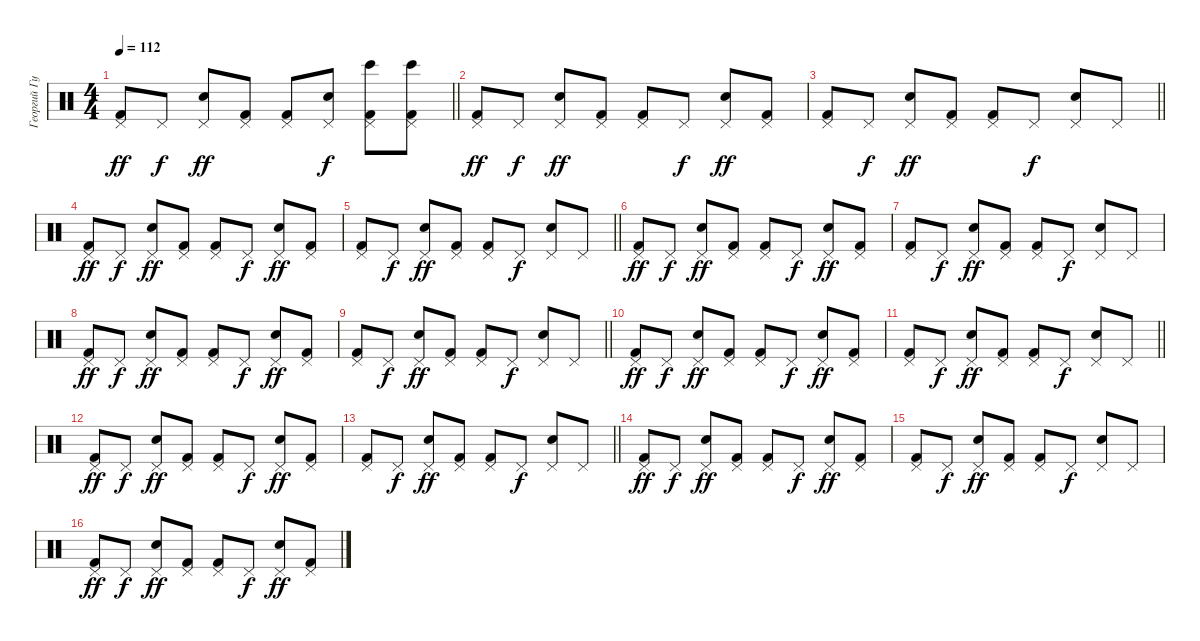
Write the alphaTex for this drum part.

\track ("Георгий Гурьянов" "Георгий Гу") {instrument percussion}
\staff {score}
\articulation defaults
\ts (4 4)
\tempo 112
\clef neutral
\barLineRight lightlight
\ks c
("Pedal Hi-Hat (hit)" "Kick (hit) 2").8{dy ff} "Pedal Hi-Hat (hit)".8{dy f} ("Pedal Hi-Hat (hit)" "Electric Snare (hit)").8{dy ff} ("Pedal Hi-Hat (hit)" "Kick (hit) 2").8 ("Pedal Hi-Hat (hit)" "Kick (hit) 2").8 ("Pedal Hi-Hat (hit)" "Electric Snare (hit)").8{dy f} ("Pedal Hi-Hat (hit)" "Kick (hit) 2" "Bongo High (hit)").8 ("Pedal Hi-Hat (hit)" "Kick (hit) 2" "Bongo High (hit)").8 |
\section ("" "")
("Pedal Hi-Hat (hit)" "Kick (hit) 2").8{dy ff} "Pedal Hi-Hat (hit)".8{dy f} ("Pedal Hi-Hat (hit)" "Electric Snare (hit)").8{dy ff} ("Pedal Hi-Hat (hit)" "Kick (hit) 2").8 ("Pedal Hi-Hat (hit)" "Kick (hit) 2").8 "Pedal Hi-Hat (hit)".8{dy f} ("Pedal Hi-Hat (hit)" "Electric Snare (hit)").8{dy ff} ("Pedal Hi-Hat (hit)" "Kick (hit) 2").8 |
\barLineRight lightlight
("Pedal Hi-Hat (hit)" "Kick (hit) 2").8 "Pedal Hi-Hat (hit)".8{dy f} ("Pedal Hi-Hat (hit)" "Electric Snare (hit)").8{dy ff} ("Pedal Hi-Hat (hit)" "Kick (hit) 2").8 ("Pedal Hi-Hat (hit)" "Kick (hit) 2").8 "Pedal Hi-Hat (hit)".8{dy f} ("Pedal Hi-Hat (hit)" "Electric Snare (hit)").8 "Pedal Hi-Hat (hit)".8 |
("Pedal Hi-Hat (hit)" "Kick (hit) 2").8{dy ff} "Pedal Hi-Hat (hit)".8{dy f} ("Pedal Hi-Hat (hit)" "Electric Snare (hit)").8{dy ff} ("Pedal Hi-Hat (hit)" "Kick (hit) 2").8 ("Pedal Hi-Hat (hit)" "Kick (hit) 2").8 "Pedal Hi-Hat (hit)".8{dy f} ("Pedal Hi-Hat (hit)" "Electric Snare (hit)").8{dy ff} ("Pedal Hi-Hat (hit)" "Kick (hit) 2").8 |
\barLineRight lightlight
("Pedal Hi-Hat (hit)" "Kick (hit) 2").8 "Pedal Hi-Hat (hit)".8{dy f} ("Pedal Hi-Hat (hit)" "Electric Snare (hit)").8{dy ff} ("Pedal Hi-Hat (hit)" "Kick (hit) 2").8 ("Pedal Hi-Hat (hit)" "Kick (hit) 2").8 "Pedal Hi-Hat (hit)".8{dy f} ("Pedal Hi-Hat (hit)" "Electric Snare (hit)").8 "Pedal Hi-Hat (hit)".8 |
("Pedal Hi-Hat (hit)" "Kick (hit) 2").8{dy ff} "Pedal Hi-Hat (hit)".8{dy f} ("Pedal Hi-Hat (hit)" "Electric Snare (hit)").8{dy ff} ("Pedal Hi-Hat (hit)" "Kick (hit) 2").8 ("Pedal Hi-Hat (hit)" "Kick (hit) 2").8 "Pedal Hi-Hat (hit)".8{dy f} ("Pedal Hi-Hat (hit)" "Electric Snare (hit)").8{dy ff} ("Pedal Hi-Hat (hit)" "Kick (hit) 2").8 |
("Pedal Hi-Hat (hit)" "Kick (hit) 2").8 "Pedal Hi-Hat (hit)".8{dy f} ("Pedal Hi-Hat (hit)" "Electric Snare (hit)").8{dy ff} ("Pedal Hi-Hat (hit)" "Kick (hit) 2").8 ("Pedal Hi-Hat (hit)" "Kick (hit) 2").8 "Pedal Hi-Hat (hit)".8{dy f} ("Pedal Hi-Hat (hit)" "Electric Snare (hit)").8 "Pedal Hi-Hat (hit)".8 |
("Pedal Hi-Hat (hit)" "Kick (hit) 2").8{dy ff} "Pedal Hi-Hat (hit)".8{dy f} ("Pedal Hi-Hat (hit)" "Electric Snare (hit)").8{dy ff} ("Pedal Hi-Hat (hit)" "Kick (hit) 2").8 ("Pedal Hi-Hat (hit)" "Kick (hit) 2").8 "Pedal Hi-Hat (hit)".8{dy f} ("Pedal Hi-Hat (hit)" "Electric Snare (hit)").8{dy ff} ("Pedal Hi-Hat (hit)" "Kick (hit) 2").8 |
\barLineRight lightlight
("Pedal Hi-Hat (hit)" "Kick (hit) 2").8 "Pedal Hi-Hat (hit)".8{dy f} ("Pedal Hi-Hat (hit)" "Electric Snare (hit)").8{dy ff} ("Pedal Hi-Hat (hit)" "Kick (hit) 2").8 ("Pedal Hi-Hat (hit)" "Kick (hit) 2").8 "Pedal Hi-Hat (hit)".8{dy f} ("Pedal Hi-Hat (hit)" "Electric Snare (hit)").8 "Pedal Hi-Hat (hit)".8 |
\section ("" "")
("Pedal Hi-Hat (hit)" "Kick (hit) 2").8{dy ff} "Pedal Hi-Hat (hit)".8{dy f} ("Pedal Hi-Hat (hit)" "Electric Snare (hit)").8{dy ff} ("Pedal Hi-Hat (hit)" "Kick (hit) 2").8 ("Pedal Hi-Hat (hit)" "Kick (hit) 2").8 "Pedal Hi-Hat (hit)".8{dy f} ("Pedal Hi-Hat (hit)" "Electric Snare (hit)").8{dy ff} ("Pedal Hi-Hat (hit)" "Kick (hit) 2").8 |
\barLineRight lightlight
("Pedal Hi-Hat (hit)" "Kick (hit) 2").8 "Pedal Hi-Hat (hit)".8{dy f} ("Pedal Hi-Hat (hit)" "Electric Snare (hit)").8{dy ff} ("Pedal Hi-Hat (hit)" "Kick (hit) 2").8 ("Pedal Hi-Hat (hit)" "Kick (hit) 2").8 "Pedal Hi-Hat (hit)".8{dy f} ("Pedal Hi-Hat (hit)" "Electric Snare (hit)").8 "Pedal Hi-Hat (hit)".8 |
("Pedal Hi-Hat (hit)" "Kick (hit) 2").8{dy ff} "Pedal Hi-Hat (hit)".8{dy f} ("Pedal Hi-Hat (hit)" "Electric Snare (hit)").8{dy ff} ("Pedal Hi-Hat (hit)" "Kick (hit) 2").8 ("Pedal Hi-Hat (hit)" "Kick (hit) 2").8 "Pedal Hi-Hat (hit)".8{dy f} ("Pedal Hi-Hat (hit)" "Electric Snare (hit)").8{dy ff} ("Pedal Hi-Hat (hit)" "Kick (hit) 2").8 |
\barLineRight lightlight
("Pedal Hi-Hat (hit)" "Kick (hit) 2").8 "Pedal Hi-Hat (hit)".8{dy f} ("Pedal Hi-Hat (hit)" "Electric Snare (hit)").8{dy ff} ("Pedal Hi-Hat (hit)" "Kick (hit) 2").8 ("Pedal Hi-Hat (hit)" "Kick (hit) 2").8 "Pedal Hi-Hat (hit)".8{dy f} ("Pedal Hi-Hat (hit)" "Electric Snare (hit)").8 "Pedal Hi-Hat (hit)".8 |
("Pedal Hi-Hat (hit)" "Kick (hit) 2").8{dy ff} "Pedal Hi-Hat (hit)".8{dy f} ("Pedal Hi-Hat (hit)" "Electric Snare (hit)").8{dy ff} ("Pedal Hi-Hat (hit)" "Kick (hit) 2").8 ("Pedal Hi-Hat (hit)" "Kick (hit) 2").8 "Pedal Hi-Hat (hit)".8{dy f} ("Pedal Hi-Hat (hit)" "Electric Snare (hit)").8{dy ff} ("Pedal Hi-Hat (hit)" "Kick (hit) 2").8 |
("Pedal Hi-Hat (hit)" "Kick (hit) 2").8 "Pedal Hi-Hat (hit)".8{dy f} ("Pedal Hi-Hat (hit)" "Electric Snare (hit)").8{dy ff} ("Pedal Hi-Hat (hit)" "Kick (hit) 2").8 ("Pedal Hi-Hat (hit)" "Kick (hit) 2").8 "Pedal Hi-Hat (hit)".8{dy f} ("Pedal Hi-Hat (hit)" "Electric Snare (hit)").8 "Pedal Hi-Hat (hit)".8 |
("Pedal Hi-Hat (hit)" "Kick (hit) 2").8{dy ff} "Pedal Hi-Hat (hit)".8{dy f} ("Pedal Hi-Hat (hit)" "Electric Snare (hit)").8{dy ff} ("Pedal Hi-Hat (hit)" "Kick (hit) 2").8 ("Pedal Hi-Hat (hit)" "Kick (hit) 2").8 "Pedal Hi-Hat (hit)".8{dy f} ("Pedal Hi-Hat (hit)" "Electric Snare (hit)").8{dy ff} ("Pedal Hi-Hat (hit)" "Kick (hit) 2").8
